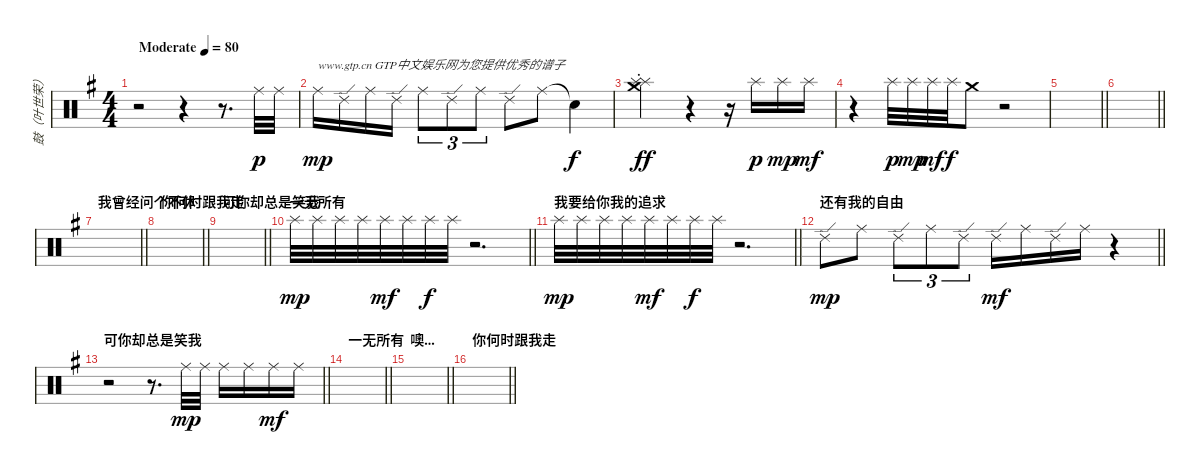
\track ("鼓（叶世荣）" "鼓（叶世荣）") {instrument percussion}
\staff {score}
\articulation defaults
\ts (4 4)
\tempo (80 "Moderate")
\clef neutral
\ks g
r.2{dy p} r.4 r.8{d} "Ride (middle)".32 "Ride (middle)".32 |
"Ride (middle)".16{txt "www.gtp.cn GTP中文娱乐网为您提供优秀的谱子" dy mp} "Ride (edge) 2".16 "Ride (middle)".16 "Ride (edge) 2".16 "Ride (middle)".8{tu (3 2)} "Ride (edge) 2".8{tu (3 2)} "Ride (middle)".8{tu (3 2)} "Ride (edge) 2".8 "Ride (middle)".8 "Snare (hit)"{t}.4{dy f} |
("Crash medium (hit)"{st} "Splash (hit)"{st} "Splash (hit)"{st}).2{dy ff} r.4 r.16 "Splash (hit)".16{dy p} "Splash (hit)".16{dy mp} "Splash (hit)".16{dy mf} |
r.4 "Splash (hit)".32{dy p} "Splash (hit)".32{dy mp} "Splash (hit)".32{dy mf} "Splash (hit)".32{dy f} "Crash medium (hit)".8 r.2 |
\barLineRight lightlight
|
\barLineRight lightlight
|
\section ("" "我曾经问个不休")
\barLineRight lightlight
|
\section ("" "你何时跟我走")
\barLineRight lightlight
|
\section ("" "可你却总是笑我")
\barLineRight lightlight
|
\section ("" "一无所有")
\barLineRight lightlight "Splash (hit)".32{dy mp} "Splash (hit)".32 "Splash (hit)".32 "Splash (hit)".32 "Splash (hit)".32{dy mf} "Splash (hit)".32 "Splash (hit)".32{dy f} "Splash (hit)".32
r.2{d} |
\section ("" "我要给你我的追求")
\barLineRight lightlight "Splash (hit)".32{dy mp} "Splash (hit)".32 "Splash (hit)".32 "Splash (hit)".32 "Splash (hit)".32{dy mf} "Splash (hit)".32 "Splash (hit)".32{dy f} "Splash (hit)".32
r.2{d} |
\section ("" "还有我的自由")
\barLineRight lightlight "Ride (edge) 2".8{dy mp} "Ride (middle)".8 "Ride (edge) 2".8{tu (3 2)} "Ride (middle)".8{tu (3 2)} "Ride (edge) 2".8{tu (3 2)} "Ride (edge) 2".16{dy mf} "Ride (middle)".16 "Ride (edge) 2".16 "Ride (middle)".16
r.4 |
\section ("" "可你却总是笑我")
\barLineRight lightlight
r.2 r.8{d} "Ride (middle)".32{dy mp} "Ride (middle)".32 "Ride (middle)".16 "Ride (middle)".16 "Ride (middle)".16{dy mf} "Ride (middle)".16 |
\section ("" "一无所有")
\barLineRight lightlight
|
\section ("" "噢...")
\barLineRight lightlight
|
\section ("" "你何时跟我走")
\barLineRight lightlight
